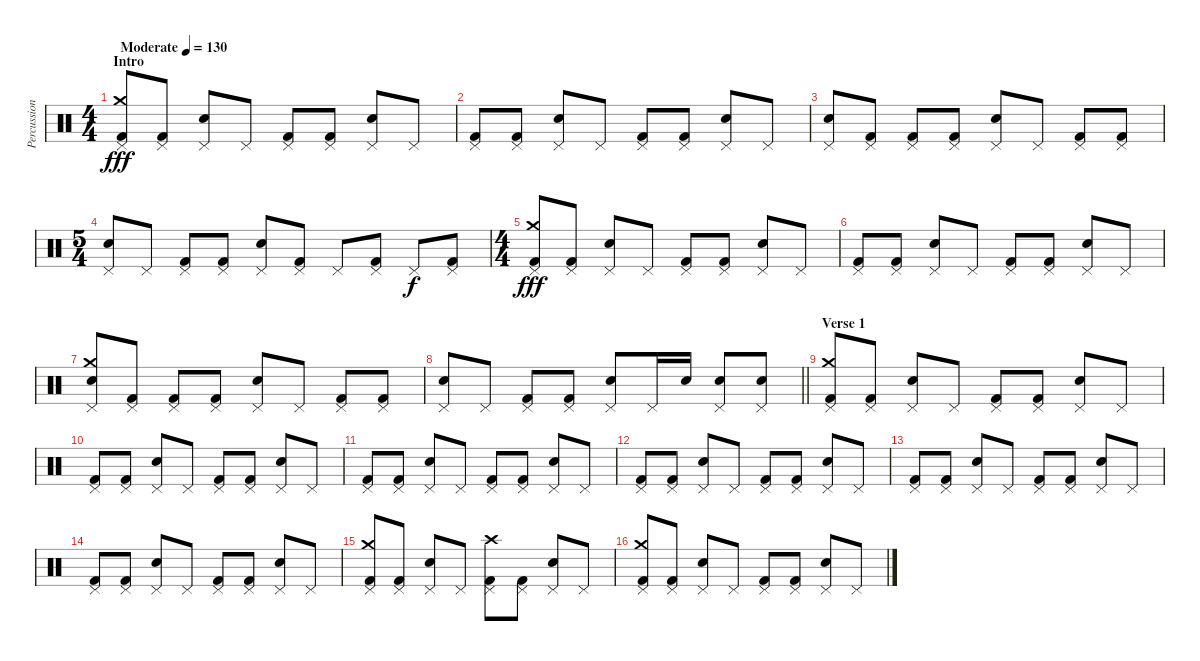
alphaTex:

\track ("Percussion" "Percussion") {instrument percussion}
\staff {score}
\articulation defaults
\ts (4 4)
\section ("" "Intro")
\tempo (130 "Moderate")
\clef neutral
\ks c
("Pedal Hi-Hat (hit)" "Crash medium (hit)" "Kick (hit) 2").8{dy fff} ("Pedal Hi-Hat (hit)" "Kick (hit) 2").8 ("Pedal Hi-Hat (hit)" "Electric Snare (hit)").8 "Pedal Hi-Hat (hit)".8 ("Pedal Hi-Hat (hit)" "Kick (hit) 2").8 ("Pedal Hi-Hat (hit)" "Kick (hit) 2").8 ("Pedal Hi-Hat (hit)" "Electric Snare (hit)").8 "Pedal Hi-Hat (hit)".8 |
("Pedal Hi-Hat (hit)" "Kick (hit) 2").8 ("Pedal Hi-Hat (hit)" "Kick (hit) 2").8 ("Pedal Hi-Hat (hit)" "Electric Snare (hit)").8 "Pedal Hi-Hat (hit)".8 ("Pedal Hi-Hat (hit)" "Kick (hit) 2").8 ("Pedal Hi-Hat (hit)" "Kick (hit) 2").8 ("Pedal Hi-Hat (hit)" "Electric Snare (hit)").8 "Pedal Hi-Hat (hit)".8 |
("Pedal Hi-Hat (hit)" "Electric Snare (hit)").8 ("Pedal Hi-Hat (hit)" "Kick (hit) 2").8 ("Pedal Hi-Hat (hit)" "Kick (hit) 2").8 ("Pedal Hi-Hat (hit)" "Kick (hit) 2").8 ("Pedal Hi-Hat (hit)" "Electric Snare (hit)").8 "Pedal Hi-Hat (hit)".8 ("Pedal Hi-Hat (hit)" "Kick (hit) 2").8 ("Pedal Hi-Hat (hit)" "Kick (hit) 2").8 |
\ts (5 4)
("Pedal Hi-Hat (hit)" "Electric Snare (hit)").8 "Pedal Hi-Hat (hit)".8 ("Pedal Hi-Hat (hit)" "Kick (hit) 2").8 ("Pedal Hi-Hat (hit)" "Kick (hit) 2").8 ("Pedal Hi-Hat (hit)" "Electric Snare (hit)").8 ("Pedal Hi-Hat (hit)" "Kick (hit) 2").8 "Pedal Hi-Hat (hit)".8 ("Pedal Hi-Hat (hit)" "Kick (hit) 2").8 "Pedal Hi-Hat (hit)".8{dy f} ("Pedal Hi-Hat (hit)" "Kick (hit) 2").8 |
\ts (4 4)
("Pedal Hi-Hat (hit)" "Crash medium (hit)" "Kick (hit) 2").8{dy fff} ("Pedal Hi-Hat (hit)" "Kick (hit) 2").8 ("Pedal Hi-Hat (hit)" "Electric Snare (hit)").8 "Pedal Hi-Hat (hit)".8 ("Pedal Hi-Hat (hit)" "Kick (hit) 2").8 ("Pedal Hi-Hat (hit)" "Kick (hit) 2").8 ("Pedal Hi-Hat (hit)" "Electric Snare (hit)").8 "Pedal Hi-Hat (hit)".8 |
("Pedal Hi-Hat (hit)" "Kick (hit) 2").8 ("Pedal Hi-Hat (hit)" "Kick (hit) 2").8 ("Pedal Hi-Hat (hit)" "Electric Snare (hit)").8 "Pedal Hi-Hat (hit)".8 ("Pedal Hi-Hat (hit)" "Kick (hit) 2").8 ("Pedal Hi-Hat (hit)" "Kick (hit) 2").8 ("Pedal Hi-Hat (hit)" "Electric Snare (hit)").8 "Pedal Hi-Hat (hit)".8 |
("Pedal Hi-Hat (hit)" "Crash medium (hit)" "Electric Snare (hit)").8 ("Pedal Hi-Hat (hit)" "Kick (hit) 2").8 ("Pedal Hi-Hat (hit)" "Kick (hit) 2").8 ("Pedal Hi-Hat (hit)" "Kick (hit) 2").8 ("Pedal Hi-Hat (hit)" "Electric Snare (hit)").8 "Pedal Hi-Hat (hit)".8 ("Pedal Hi-Hat (hit)" "Kick (hit) 2").8 ("Pedal Hi-Hat (hit)" "Kick (hit) 2").8 |
\barLineRight lightlight
("Pedal Hi-Hat (hit)" "Electric Snare (hit)").8 "Pedal Hi-Hat (hit)".8 ("Pedal Hi-Hat (hit)" "Kick (hit) 2").8 ("Pedal Hi-Hat (hit)" "Kick (hit) 2").8 ("Pedal Hi-Hat (hit)" "Electric Snare (hit)").8 "Pedal Hi-Hat (hit)".16 "Electric Snare (hit)".16 ("Pedal Hi-Hat (hit)" "Electric Snare (hit)").8 ("Pedal Hi-Hat (hit)" "Electric Snare (hit)").8 |
\section ("" "Verse 1")
("Pedal Hi-Hat (hit)" "Crash medium (hit)" "Kick (hit) 2").8 ("Pedal Hi-Hat (hit)" "Kick (hit) 2").8 ("Pedal Hi-Hat (hit)" "Electric Snare (hit)").8 "Pedal Hi-Hat (hit)".8 ("Pedal Hi-Hat (hit)" "Kick (hit) 2").8 ("Pedal Hi-Hat (hit)" "Kick (hit) 2").8 ("Pedal Hi-Hat (hit)" "Electric Snare (hit)").8 "Pedal Hi-Hat (hit)".8 |
("Pedal Hi-Hat (hit)" "Kick (hit) 2").8 ("Pedal Hi-Hat (hit)" "Kick (hit) 2").8 ("Pedal Hi-Hat (hit)" "Electric Snare (hit)").8 "Pedal Hi-Hat (hit)".8 ("Pedal Hi-Hat (hit)" "Kick (hit) 2").8 ("Pedal Hi-Hat (hit)" "Kick (hit) 2").8 ("Pedal Hi-Hat (hit)" "Electric Snare (hit)").8 "Pedal Hi-Hat (hit)".8 |
("Pedal Hi-Hat (hit)" "Kick (hit) 2").8 ("Pedal Hi-Hat (hit)" "Kick (hit) 2").8 ("Pedal Hi-Hat (hit)" "Electric Snare (hit)").8 "Pedal Hi-Hat (hit)".8 ("Pedal Hi-Hat (hit)" "Kick (hit) 2").8 ("Pedal Hi-Hat (hit)" "Kick (hit) 2").8 ("Pedal Hi-Hat (hit)" "Electric Snare (hit)").8 "Pedal Hi-Hat (hit)".8 |
("Pedal Hi-Hat (hit)" "Kick (hit) 2").8 ("Pedal Hi-Hat (hit)" "Kick (hit) 2").8 ("Pedal Hi-Hat (hit)" "Electric Snare (hit)").8 "Pedal Hi-Hat (hit)".8 ("Pedal Hi-Hat (hit)" "Kick (hit) 2").8 ("Pedal Hi-Hat (hit)" "Kick (hit) 2").8 ("Pedal Hi-Hat (hit)" "Electric Snare (hit)").8 "Pedal Hi-Hat (hit)".8 |
("Pedal Hi-Hat (hit)" "Kick (hit) 2").8 ("Pedal Hi-Hat (hit)" "Kick (hit) 2").8 ("Pedal Hi-Hat (hit)" "Electric Snare (hit)").8 "Pedal Hi-Hat (hit)".8 ("Pedal Hi-Hat (hit)" "Kick (hit) 2").8 ("Pedal Hi-Hat (hit)" "Kick (hit) 2").8 ("Pedal Hi-Hat (hit)" "Electric Snare (hit)").8 "Pedal Hi-Hat (hit)".8 |
("Pedal Hi-Hat (hit)" "Kick (hit) 2").8 ("Pedal Hi-Hat (hit)" "Kick (hit) 2").8 ("Pedal Hi-Hat (hit)" "Electric Snare (hit)").8 "Pedal Hi-Hat (hit)".8 ("Pedal Hi-Hat (hit)" "Kick (hit) 2").8 ("Pedal Hi-Hat (hit)" "Kick (hit) 2").8 ("Pedal Hi-Hat (hit)" "Electric Snare (hit)").8 "Pedal Hi-Hat (hit)".8 |
("Pedal Hi-Hat (hit)" "Crash medium (hit)" "Kick (hit) 2").8 ("Pedal Hi-Hat (hit)" "Kick (hit) 2").8 ("Pedal Hi-Hat (hit)" "Electric Snare (hit)").8 "Pedal Hi-Hat (hit)".8 ("Pedal Hi-Hat (hit)" "Crash high (hit)" "Kick (hit) 2").8 ("Pedal Hi-Hat (hit)" "Kick (hit) 2").8 ("Pedal Hi-Hat (hit)" "Electric Snare (hit)").8 "Pedal Hi-Hat (hit)".8 |
("Pedal Hi-Hat (hit)" "Crash medium (hit)" "Kick (hit) 2").8 ("Pedal Hi-Hat (hit)" "Kick (hit) 2").8 ("Pedal Hi-Hat (hit)" "Electric Snare (hit)").8 "Pedal Hi-Hat (hit)".8 ("Pedal Hi-Hat (hit)" "Kick (hit) 2").8 ("Pedal Hi-Hat (hit)" "Kick (hit) 2").8 ("Pedal Hi-Hat (hit)" "Electric Snare (hit)").8 "Pedal Hi-Hat (hit)".8
